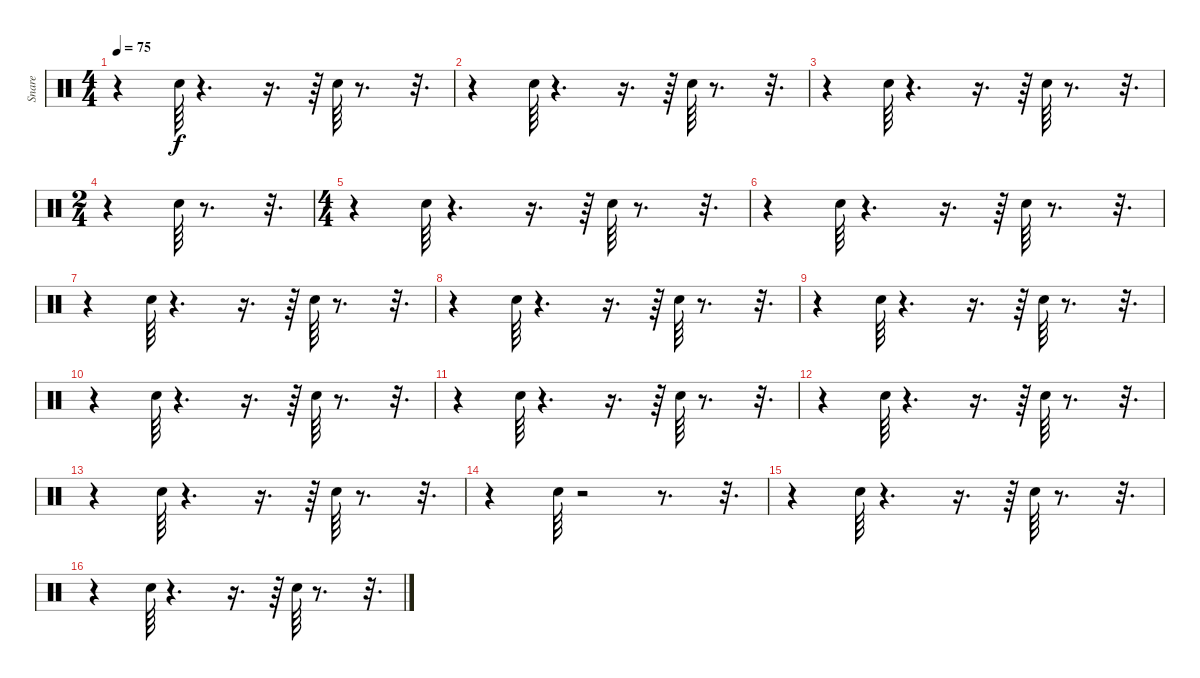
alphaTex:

\track ("Snare" "Snare") {instrument percussion}
\staff {score}
\articulation defaults
\ts (4 4)
\tempo 75
\clef neutral
\ks c
r.4{dy f} "Electric Snare (hit)".64 r.4{d} r.16{d} r.64 "Electric Snare (hit)".64 r.8{d} r.32{d} |
r.4 "Electric Snare (hit)".64 r.4{d} r.16{d} r.64 "Electric Snare (hit)".64 r.8{d} r.32{d} |
r.4 "Electric Snare (hit)".64 r.4{d} r.16{d} r.64 "Electric Snare (hit)".64 r.8{d} r.32{d} |
\ts (2 4)
r.4 "Electric Snare (hit)".64 r.8{d} r.32{d} |
\ts (4 4)
r.4 "Electric Snare (hit)".64 r.4{d} r.16{d} r.64 "Electric Snare (hit)".64 r.8{d} r.32{d} |
r.4 "Electric Snare (hit)".64 r.4{d} r.16{d} r.64 "Electric Snare (hit)".64 r.8{d} r.32{d} |
r.4 "Electric Snare (hit)".64 r.4{d} r.16{d} r.64 "Electric Snare (hit)".64 r.8{d} r.32{d} |
r.4 "Electric Snare (hit)".64 r.4{d} r.16{d} r.64 "Electric Snare (hit)".64 r.8{d} r.32{d} |
r.4 "Electric Snare (hit)".64 r.4{d} r.16{d} r.64 "Electric Snare (hit)".64 r.8{d} r.32{d} |
r.4 "Electric Snare (hit)".64 r.4{d} r.16{d} r.64 "Electric Snare (hit)".64 r.8{d} r.32{d} |
r.4 "Electric Snare (hit)".64 r.4{d} r.16{d} r.64 "Electric Snare (hit)".64 r.8{d} r.32{d} |
r.4 "Electric Snare (hit)".64 r.4{d} r.16{d} r.64 "Electric Snare (hit)".64 r.8{d} r.32{d} |
r.4 "Electric Snare (hit)".64 r.4{d} r.16{d} r.64 "Electric Snare (hit)".64 r.8{d} r.32{d} |
r.4 "Electric Snare (hit)".64 r.2 r.8{d} r.32{d} |
r.4 "Electric Snare (hit)".64 r.4{d} r.16{d} r.64 "Electric Snare (hit)".64 r.8{d} r.32{d} |
r.4 "Electric Snare (hit)".64 r.4{d} r.16{d} r.64 "Electric Snare (hit)".64 r.8{d} r.32{d}
